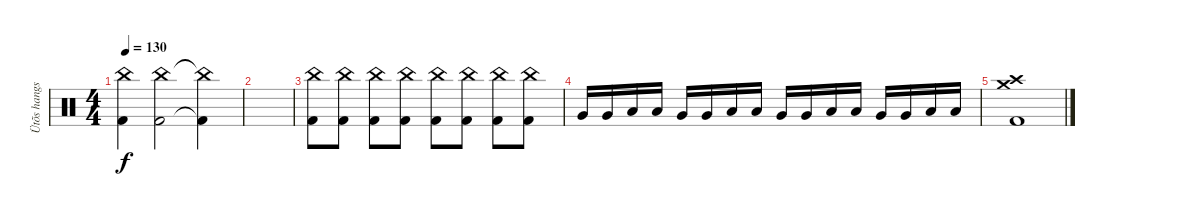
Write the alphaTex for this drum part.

\track ("Ütõs hangszer" "Ütõs hangs") {instrument percussion}
\staff {score}
\articulation defaults
\ts (4 4)
\tempo 130
\clef neutral
\ks c
("China (hit)" "Kick (hit) 2").4{dy f} ("China (hit)" "Kick (hit) 2").2 ("China (hit)"{t} "Kick (hit) 2"{t}).4 |
|
("China (hit)" "Kick (hit) 2").8 ("China (hit)" "Kick (hit) 2").8 ("China (hit)" "Kick (hit) 2").8 ("China (hit)" "Kick (hit) 2").8 ("China (hit)" "Kick (hit) 2").8 ("China (hit)" "Kick (hit) 2").8 ("China (hit)" "Kick (hit) 2").8 ("China (hit)" "Kick (hit) 2").8 |
"Very Low Tom (hit)".16 "Very Low Tom (hit)".16 "Low Floor Tom (hit)".16 "Low Floor Tom (hit)".16 "Very Low Tom (hit)".16 "Very Low Tom (hit)".16 "Low Floor Tom (hit)".16 "Low Floor Tom (hit)".16 "Very Low Tom (hit)".16 "Very Low Tom (hit)".16 "Low Floor Tom (hit)".16 "Low Floor Tom (hit)".16 "Very Low Tom (hit)".16 "Very Low Tom (hit)".16 "Low Floor Tom (hit)".16 "Low Floor Tom (hit)".16 |
("Crash high (hit)" "Crash medium (hit)" "Kick (hit) 2").1
